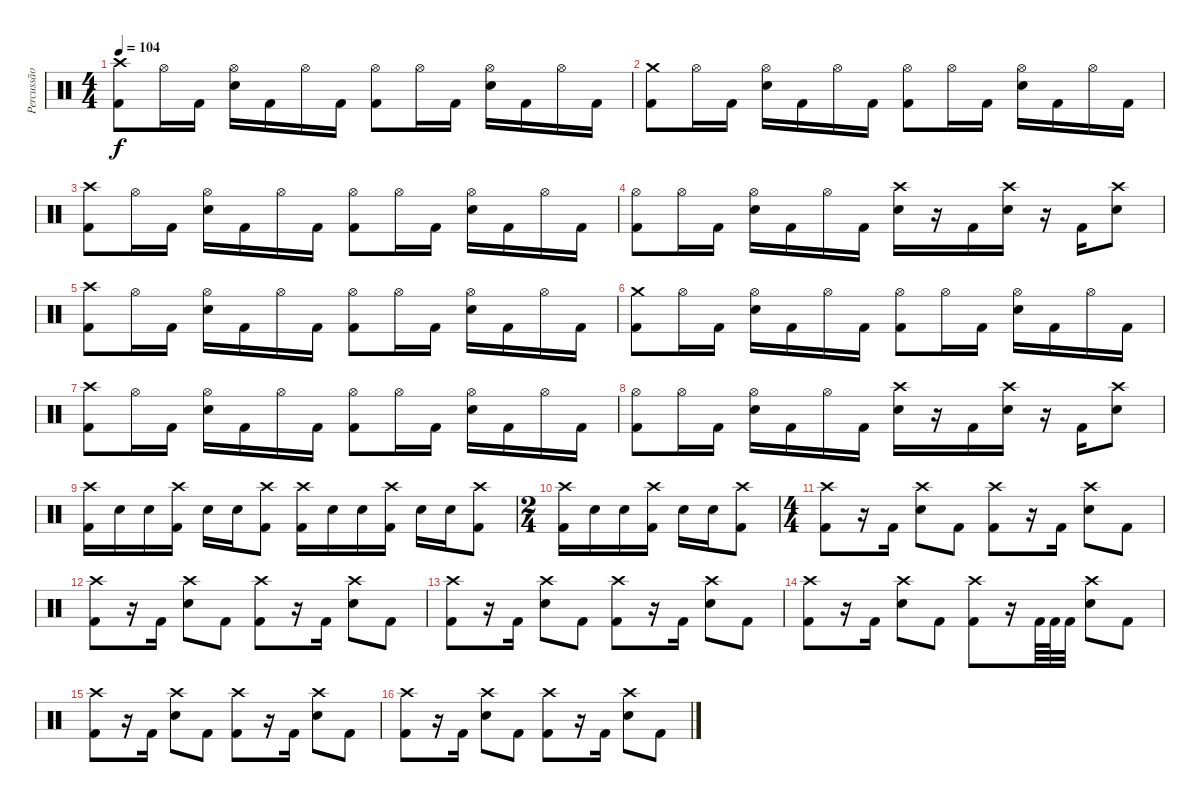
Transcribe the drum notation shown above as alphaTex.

\track ("Percussão" "Percussão") {instrument percussion}
\staff {score}
\articulation defaults
\ts (4 4)
\tempo 104
\clef neutral
\ks c
("Crash high (hit)" "Kick (hit) 2").8{dy f} "Hi-Hat (open)".16 "Kick (hit) 2".16 ("Hi-Hat (open)" "Electric Snare (hit)").16 "Kick (hit) 2".16 "Hi-Hat (open)".16 "Kick (hit) 2".16 ("Hi-Hat (open)" "Kick (hit) 2").8 "Hi-Hat (open)".16 "Kick (hit) 2".16 ("Hi-Hat (open)" "Electric Snare (hit)").16 "Kick (hit) 2".16 "Hi-Hat (open)".16 "Kick (hit) 2".16 |
("Crash medium (hit)" "Kick (hit) 2").8 "Hi-Hat (open)".16 "Kick (hit) 2".16 ("Hi-Hat (open)" "Electric Snare (hit)").16 "Kick (hit) 2".16 "Hi-Hat (open)".16 "Kick (hit) 2".16 ("Hi-Hat (open)" "Kick (hit) 2").8 "Hi-Hat (open)".16 "Kick (hit) 2".16 ("Hi-Hat (open)" "Electric Snare (hit)").16 "Kick (hit) 2".16 "Hi-Hat (open)".16 "Kick (hit) 2".16 |
("Crash high (hit)" "Kick (hit) 2").8 "Hi-Hat (open)".16 "Kick (hit) 2".16 ("Hi-Hat (open)" "Electric Snare (hit)").16 "Kick (hit) 2".16 "Hi-Hat (open)".16 "Kick (hit) 2".16 ("Hi-Hat (open)" "Kick (hit) 2").8 "Hi-Hat (open)".16 "Kick (hit) 2".16 ("Hi-Hat (open)" "Electric Snare (hit)").16 "Kick (hit) 2".16 "Hi-Hat (open)".16 "Kick (hit) 2".16 |
("Hi-Hat (open)" "Kick (hit) 2").8 "Hi-Hat (open)".16 "Kick (hit) 2".16 ("Hi-Hat (open)" "Electric Snare (hit)").16 "Kick (hit) 2".16 "Hi-Hat (open)".16 "Kick (hit) 2".16 ("Crash high (hit)" "Electric Snare (hit)").16 r.16 "Kick (hit) 2".16 ("Crash high (hit)" "Electric Snare (hit)").16 r.16 "Kick (hit) 2".16 ("Crash high (hit)" "Electric Snare (hit)").8 |
("Crash high (hit)" "Kick (hit) 2").8 "Hi-Hat (open)".16 "Kick (hit) 2".16 ("Hi-Hat (open)" "Electric Snare (hit)").16 "Kick (hit) 2".16 "Hi-Hat (open)".16 "Kick (hit) 2".16 ("Hi-Hat (open)" "Kick (hit) 2").8 "Hi-Hat (open)".16 "Kick (hit) 2".16 ("Hi-Hat (open)" "Electric Snare (hit)").16 "Kick (hit) 2".16 "Hi-Hat (open)".16 "Kick (hit) 2".16 |
("Crash medium (hit)" "Kick (hit) 2").8 "Hi-Hat (open)".16 "Kick (hit) 2".16 ("Hi-Hat (open)" "Electric Snare (hit)").16 "Kick (hit) 2".16 "Hi-Hat (open)".16 "Kick (hit) 2".16 ("Hi-Hat (open)" "Kick (hit) 2").8 "Hi-Hat (open)".16 "Kick (hit) 2".16 ("Hi-Hat (open)" "Electric Snare (hit)").16 "Kick (hit) 2".16 "Hi-Hat (open)".16 "Kick (hit) 2".16 |
("Crash high (hit)" "Kick (hit) 2").8 "Hi-Hat (open)".16 "Kick (hit) 2".16 ("Hi-Hat (open)" "Electric Snare (hit)").16 "Kick (hit) 2".16 "Hi-Hat (open)".16 "Kick (hit) 2".16 ("Hi-Hat (open)" "Kick (hit) 2").8 "Hi-Hat (open)".16 "Kick (hit) 2".16 ("Hi-Hat (open)" "Electric Snare (hit)").16 "Kick (hit) 2".16 "Hi-Hat (open)".16 "Kick (hit) 2".16 |
("Hi-Hat (open)" "Kick (hit) 2").8 "Hi-Hat (open)".16 "Kick (hit) 2".16 ("Hi-Hat (open)" "Electric Snare (hit)").16 "Kick (hit) 2".16 "Hi-Hat (open)".16 "Kick (hit) 2".16 ("Crash high (hit)" "Electric Snare (hit)").16 r.16 "Kick (hit) 2".16 ("Crash high (hit)" "Electric Snare (hit)").16 r.16 "Kick (hit) 2".16 ("Crash high (hit)" "Electric Snare (hit)").8 |
("Crash high (hit)" "Kick (hit) 2").16 "Electric Snare (hit)".16 "Electric Snare (hit)".16 ("Crash high (hit)" "Kick (hit) 2").16 "Electric Snare (hit)".16 "Electric Snare (hit)".16 ("Crash high (hit)" "Kick (hit) 2").8 ("Crash high (hit)" "Kick (hit) 2").16 "Electric Snare (hit)".16 "Electric Snare (hit)".16 ("Crash high (hit)" "Kick (hit) 2").16 "Electric Snare (hit)".16 "Electric Snare (hit)".16 ("Crash high (hit)" "Kick (hit) 2").8 |
\ts (2 4)
("Crash high (hit)" "Kick (hit) 2").16 "Electric Snare (hit)".16 "Electric Snare (hit)".16 ("Crash high (hit)" "Kick (hit) 2").16 "Electric Snare (hit)".16 "Electric Snare (hit)".16 ("Crash high (hit)" "Kick (hit) 2").8 |
\ts (4 4)
("Crash high (hit)" "Kick (hit) 2").8 r.16 "Kick (hit) 2".16 ("Crash high (hit)" "Electric Snare (hit)").8 "Kick (hit) 2".8 ("Crash high (hit)" "Kick (hit) 2").8 r.16 "Kick (hit) 2".16 ("Crash high (hit)" "Electric Snare (hit)").8 "Kick (hit) 2".8 |
("Crash high (hit)" "Kick (hit) 2").8 r.16 "Kick (hit) 2".16 ("Crash high (hit)" "Electric Snare (hit)").8 "Kick (hit) 2".8 ("Crash high (hit)" "Kick (hit) 2").8 r.16 "Kick (hit) 2".16 ("Crash high (hit)" "Electric Snare (hit)").8 "Kick (hit) 2".8 |
("Crash high (hit)" "Kick (hit) 2").8 r.16 "Kick (hit) 2".16 ("Crash high (hit)" "Electric Snare (hit)").8 "Kick (hit) 2".8 ("Crash high (hit)" "Kick (hit) 2").8 r.16 "Kick (hit) 2".16 ("Crash high (hit)" "Electric Snare (hit)").8 "Kick (hit) 2".8 |
("Crash high (hit)" "Kick (hit) 2").8 r.16 "Kick (hit) 2".16 ("Crash high (hit)" "Electric Snare (hit)").8 "Kick (hit) 2".8 ("Crash high (hit)" "Kick (hit) 2").8 r.16 "Kick (hit) 2".64 "Kick (hit) 2".64 "Kick (hit) 2".32 ("Crash high (hit)" "Electric Snare (hit)").8 "Kick (hit) 2".8 |
("Crash high (hit)" "Kick (hit) 2").8 r.16 "Kick (hit) 2".16 ("Crash high (hit)" "Electric Snare (hit)").8 "Kick (hit) 2".8 ("Crash high (hit)" "Kick (hit) 2").8 r.16 "Kick (hit) 2".16 ("Crash high (hit)" "Electric Snare (hit)").8 "Kick (hit) 2".8 |
("Crash high (hit)" "Kick (hit) 2").8 r.16 "Kick (hit) 2".16 ("Crash high (hit)" "Electric Snare (hit)").8 "Kick (hit) 2".8 ("Crash high (hit)" "Kick (hit) 2").8 r.16 "Kick (hit) 2".16 ("Crash high (hit)" "Electric Snare (hit)").8 "Kick (hit) 2".8
